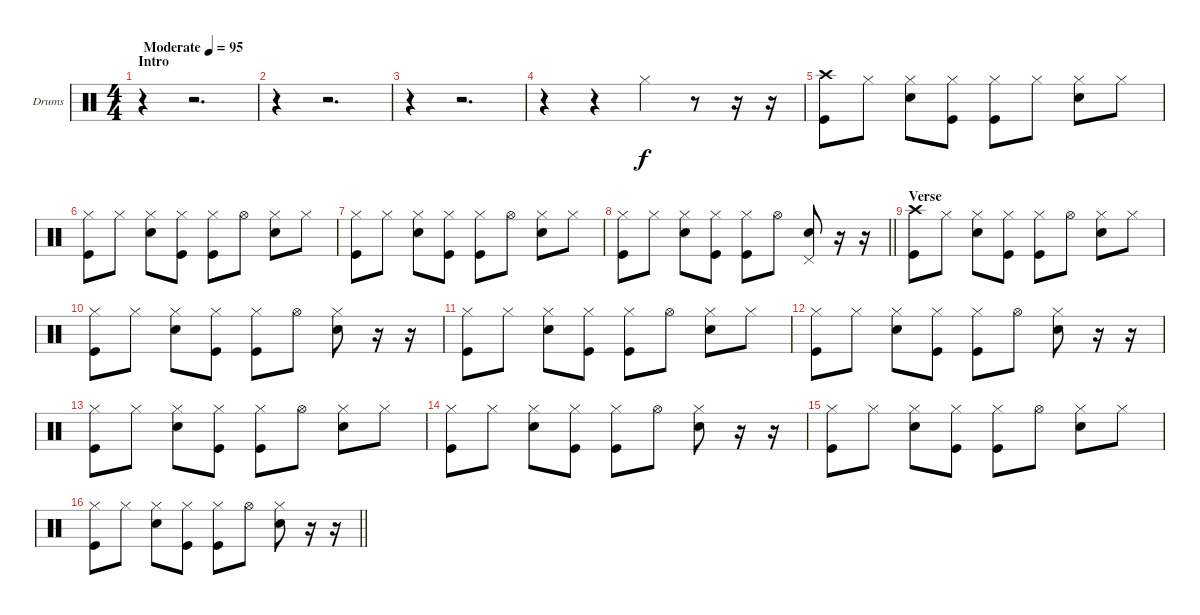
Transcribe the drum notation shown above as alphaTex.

\bracketExtendMode groupsimilarinstruments
\firstSystemTrackNameOrientation horizontal
\otherSystemsTrackNameOrientation horizontal
\track ("Drumkit" "Drums") {instrument percussion}
\staff {score}
\articulation defaults
\ts (4 4)
\beaming (8 2 2 2 2)
\section ("" "Intro")
\tempo (95 "Moderate")
\clef neutral
\ks c
r.4{dy f} r.2{d} |
r.4 r.2{d} |
r.4 r.2{d} |
r.4 r.4 "Hi-Hat (closed)".4 r.8 r.16 r.16 |
("Crash high (hit)" "Kick (hit)").8 "Hi-Hat (closed)".8 ("Hi-Hat (closed)" "Snare (hit) 2").8 ("Hi-Hat (closed)" "Kick (hit)").8 ("Hi-Hat (closed)" "Kick (hit)").8 "Hi-Hat (closed)".8 ("Hi-Hat (closed)" "Snare (hit) 2").8 "Hi-Hat (closed)".8 |
("Hi-Hat (closed)" "Kick (hit)").8 "Hi-Hat (closed)".8 ("Hi-Hat (closed)" "Snare (hit) 2").8 ("Hi-Hat (closed)" "Kick (hit)").8 ("Hi-Hat (closed)" "Kick (hit)").8 "Hi-Hat (open)".8 ("Hi-Hat (closed)" "Snare (hit) 2").8 "Hi-Hat (closed)".8 |
("Hi-Hat (closed)" "Kick (hit)").8 "Hi-Hat (closed)".8 ("Hi-Hat (closed)" "Snare (hit) 2").8 ("Hi-Hat (closed)" "Kick (hit)").8 ("Hi-Hat (closed)" "Kick (hit)").8 "Hi-Hat (open)".8 ("Hi-Hat (closed)" "Snare (hit) 2").8 "Hi-Hat (closed)".8 |
\barLineRight lightlight
("Hi-Hat (closed)" "Kick (hit)").8 "Hi-Hat (closed)".8 ("Hi-Hat (closed)" "Snare (hit) 2").8 ("Hi-Hat (closed)" "Kick (hit)").8 ("Hi-Hat (closed)" "Kick (hit)").8 "Hi-Hat (open)".8 ("Pedal Hi-Hat (hit)" "Snare (hit) 2").8 r.16 r.16 |
\section ("" "Verse")
("Crash high (hit)" "Kick (hit)").8 "Hi-Hat (closed)".8 ("Hi-Hat (closed)" "Snare (hit) 2").8 ("Hi-Hat (closed)" "Kick (hit)").8 ("Hi-Hat (closed)" "Kick (hit)").8 "Hi-Hat (open)".8 ("Hi-Hat (closed)" "Snare (hit) 2").8 "Hi-Hat (closed)".8 |
("Hi-Hat (closed)" "Kick (hit)").8 "Hi-Hat (closed)".8 ("Hi-Hat (closed)" "Snare (hit) 2").8 ("Hi-Hat (closed)" "Kick (hit)").8 ("Hi-Hat (closed)" "Kick (hit)").8 "Hi-Hat (open)".8 ("Hi-Hat (closed)" "Snare (hit) 2").8 r.16 r.16 |
("Hi-Hat (closed)" "Kick (hit)").8 "Hi-Hat (closed)".8 ("Hi-Hat (closed)" "Snare (hit) 2").8 ("Hi-Hat (closed)" "Kick (hit)").8 ("Hi-Hat (closed)" "Kick (hit)").8 "Hi-Hat (open)".8 ("Hi-Hat (closed)" "Snare (hit) 2").8 "Hi-Hat (closed)".8 |
("Hi-Hat (closed)" "Kick (hit)").8 "Hi-Hat (closed)".8 ("Hi-Hat (closed)" "Snare (hit) 2").8 ("Hi-Hat (closed)" "Kick (hit)").8 ("Hi-Hat (closed)" "Kick (hit)").8 "Hi-Hat (open)".8 ("Hi-Hat (closed)" "Snare (hit) 2").8 r.16 r.16 |
("Hi-Hat (closed)" "Kick (hit)").8 "Hi-Hat (closed)".8 ("Hi-Hat (closed)" "Snare (hit) 2").8 ("Hi-Hat (closed)" "Kick (hit)").8 ("Hi-Hat (closed)" "Kick (hit)").8 "Hi-Hat (open)".8 ("Hi-Hat (closed)" "Snare (hit) 2").8 "Hi-Hat (closed)".8 |
("Hi-Hat (closed)" "Kick (hit)").8 "Hi-Hat (closed)".8 ("Hi-Hat (closed)" "Snare (hit) 2").8 ("Hi-Hat (closed)" "Kick (hit)").8 ("Hi-Hat (closed)" "Kick (hit)").8 "Hi-Hat (open)".8 ("Hi-Hat (closed)" "Snare (hit) 2").8 r.16 r.16 |
("Hi-Hat (closed)" "Kick (hit)").8 "Hi-Hat (closed)".8 ("Hi-Hat (closed)" "Snare (hit) 2").8 ("Hi-Hat (closed)" "Kick (hit)").8 ("Hi-Hat (closed)" "Kick (hit)").8 "Hi-Hat (open)".8 ("Hi-Hat (closed)" "Snare (hit) 2").8 "Hi-Hat (closed)".8 |
\barLineRight lightlight
("Hi-Hat (closed)" "Kick (hit)").8 "Hi-Hat (closed)".8 ("Hi-Hat (closed)" "Snare (hit) 2").8 ("Hi-Hat (closed)" "Kick (hit)").8 ("Hi-Hat (closed)" "Kick (hit)").8 "Hi-Hat (open)".8 ("Hi-Hat (closed)" "Snare (hit) 2").8 r.16 r.16
